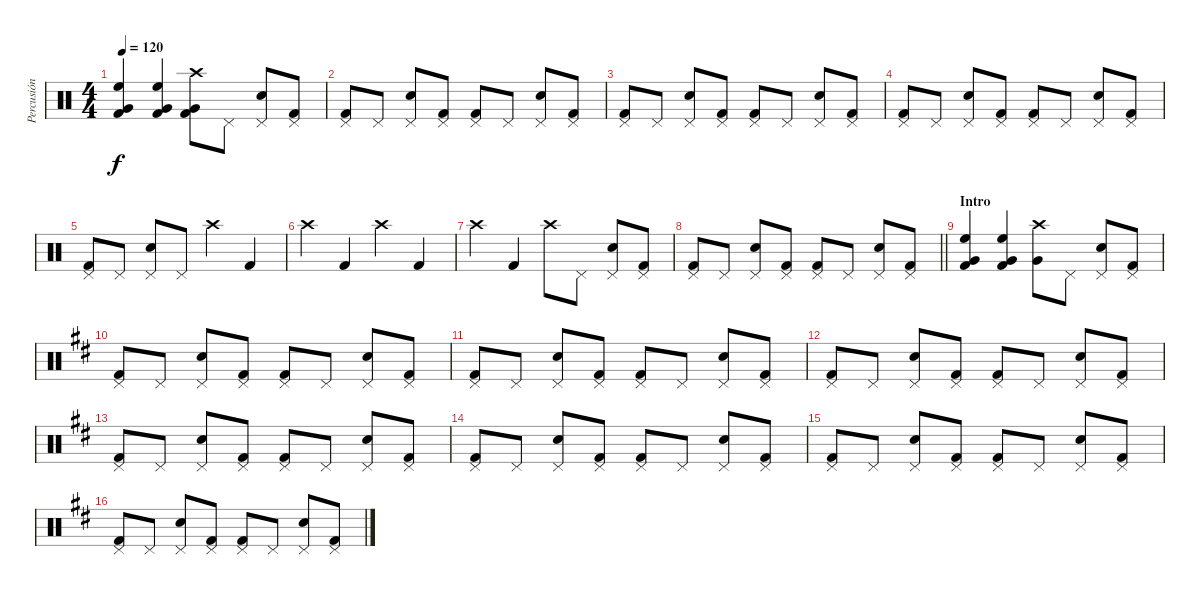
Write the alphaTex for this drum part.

\track ("Percusión" "Percusión") {instrument percussion}
\staff {score}
\articulation defaults
\ts (4 4)
\tempo 120
\clef neutral
\ks c
("Very Low Tom (hit)" "High Floor Tom (hit)" "Kick (hit) 2").4{dy f} ("Very Low Tom (hit)" "High Floor Tom (hit)" "Kick (hit) 2").4 ("Very Low Tom (hit)" "Crash high (hit)" "Kick (hit) 2").8 "Pedal Hi-Hat (hit)".8 ("Pedal Hi-Hat (hit)" "Electric Snare (hit)").8 ("Pedal Hi-Hat (hit)" "Kick (hit) 2").8 |
("Pedal Hi-Hat (hit)" "Kick (hit) 2").8 "Pedal Hi-Hat (hit)".8 ("Pedal Hi-Hat (hit)" "Electric Snare (hit)").8 ("Pedal Hi-Hat (hit)" "Kick (hit) 2").8 ("Pedal Hi-Hat (hit)" "Kick (hit) 2").8 "Pedal Hi-Hat (hit)".8 ("Pedal Hi-Hat (hit)" "Electric Snare (hit)").8 ("Pedal Hi-Hat (hit)" "Kick (hit) 2").8 |
("Pedal Hi-Hat (hit)" "Kick (hit) 2").8 "Pedal Hi-Hat (hit)".8 ("Pedal Hi-Hat (hit)" "Electric Snare (hit)").8 ("Pedal Hi-Hat (hit)" "Kick (hit) 2").8 ("Pedal Hi-Hat (hit)" "Kick (hit) 2").8 "Pedal Hi-Hat (hit)".8 ("Pedal Hi-Hat (hit)" "Electric Snare (hit)").8 ("Pedal Hi-Hat (hit)" "Kick (hit) 2").8 |
("Pedal Hi-Hat (hit)" "Kick (hit) 2").8 "Pedal Hi-Hat (hit)".8 ("Pedal Hi-Hat (hit)" "Electric Snare (hit)").8 ("Pedal Hi-Hat (hit)" "Kick (hit) 2").8 ("Pedal Hi-Hat (hit)" "Kick (hit) 2").8 "Pedal Hi-Hat (hit)".8 ("Pedal Hi-Hat (hit)" "Electric Snare (hit)").8 ("Pedal Hi-Hat (hit)" "Kick (hit) 2").8 |
("Pedal Hi-Hat (hit)" "Kick (hit) 2").8 "Pedal Hi-Hat (hit)".8 ("Pedal Hi-Hat (hit)" "Electric Snare (hit)").8 "Pedal Hi-Hat (hit)".8 "Crash high (hit)".4 "Kick (hit) 2".4 |
"Crash high (hit)".4 "Kick (hit) 2".4 "Crash high (hit)".4 "Kick (hit) 2".4 |
"Crash high (hit)".4 "Kick (hit) 2".4 "Crash high (hit)".8 "Pedal Hi-Hat (hit)".8 ("Pedal Hi-Hat (hit)" "Electric Snare (hit)").8 ("Pedal Hi-Hat (hit)" "Kick (hit) 2").8 |
\barLineRight lightlight
("Pedal Hi-Hat (hit)" "Kick (hit) 2").8 "Pedal Hi-Hat (hit)".8 ("Pedal Hi-Hat (hit)" "Electric Snare (hit)").8 ("Pedal Hi-Hat (hit)" "Kick (hit) 2").8 ("Pedal Hi-Hat (hit)" "Kick (hit) 2").8 "Pedal Hi-Hat (hit)".8 ("Pedal Hi-Hat (hit)" "Electric Snare (hit)").8 ("Pedal Hi-Hat (hit)" "Kick (hit) 2").8 |
\section ("" "Intro")
("Very Low Tom (hit)" "High Floor Tom (hit)" "Kick (hit) 2").4 ("Very Low Tom (hit)" "High Floor Tom (hit)" "Kick (hit) 2").4 ("Very Low Tom (hit)" "Crash high (hit)").8 "Pedal Hi-Hat (hit)".8 ("Pedal Hi-Hat (hit)" "Electric Snare (hit)").8 ("Pedal Hi-Hat (hit)" "Kick (hit) 2").8 |
\ks d
("Pedal Hi-Hat (hit)" "Kick (hit) 2").8 "Pedal Hi-Hat (hit)".8 ("Pedal Hi-Hat (hit)" "Electric Snare (hit)").8 ("Pedal Hi-Hat (hit)" "Kick (hit) 2").8 ("Pedal Hi-Hat (hit)" "Kick (hit) 2").8 "Pedal Hi-Hat (hit)".8 ("Pedal Hi-Hat (hit)" "Electric Snare (hit)").8 ("Pedal Hi-Hat (hit)" "Kick (hit) 2").8 |
("Pedal Hi-Hat (hit)" "Kick (hit) 2").8 "Pedal Hi-Hat (hit)".8 ("Pedal Hi-Hat (hit)" "Electric Snare (hit)").8 ("Pedal Hi-Hat (hit)" "Kick (hit) 2").8 ("Pedal Hi-Hat (hit)" "Kick (hit) 2").8 "Pedal Hi-Hat (hit)".8 ("Pedal Hi-Hat (hit)" "Electric Snare (hit)").8 ("Pedal Hi-Hat (hit)" "Kick (hit) 2").8 |
("Pedal Hi-Hat (hit)" "Kick (hit) 2").8 "Pedal Hi-Hat (hit)".8 ("Pedal Hi-Hat (hit)" "Electric Snare (hit)").8 ("Pedal Hi-Hat (hit)" "Kick (hit) 2").8 ("Pedal Hi-Hat (hit)" "Kick (hit) 2").8 "Pedal Hi-Hat (hit)".8 ("Pedal Hi-Hat (hit)" "Electric Snare (hit)").8 ("Pedal Hi-Hat (hit)" "Kick (hit) 2").8 |
("Pedal Hi-Hat (hit)" "Kick (hit) 2").8 "Pedal Hi-Hat (hit)".8 ("Pedal Hi-Hat (hit)" "Electric Snare (hit)").8 ("Pedal Hi-Hat (hit)" "Kick (hit) 2").8 ("Pedal Hi-Hat (hit)" "Kick (hit) 2").8 "Pedal Hi-Hat (hit)".8 ("Pedal Hi-Hat (hit)" "Electric Snare (hit)").8 ("Pedal Hi-Hat (hit)" "Kick (hit) 2").8 |
("Pedal Hi-Hat (hit)" "Kick (hit) 2").8 "Pedal Hi-Hat (hit)".8 ("Pedal Hi-Hat (hit)" "Electric Snare (hit)").8 ("Pedal Hi-Hat (hit)" "Kick (hit) 2").8 ("Pedal Hi-Hat (hit)" "Kick (hit) 2").8 "Pedal Hi-Hat (hit)".8 ("Pedal Hi-Hat (hit)" "Electric Snare (hit)").8 ("Pedal Hi-Hat (hit)" "Kick (hit) 2").8 |
("Pedal Hi-Hat (hit)" "Kick (hit) 2").8 "Pedal Hi-Hat (hit)".8 ("Pedal Hi-Hat (hit)" "Electric Snare (hit)").8 ("Pedal Hi-Hat (hit)" "Kick (hit) 2").8 ("Pedal Hi-Hat (hit)" "Kick (hit) 2").8 "Pedal Hi-Hat (hit)".8 ("Pedal Hi-Hat (hit)" "Electric Snare (hit)").8 ("Pedal Hi-Hat (hit)" "Kick (hit) 2").8 |
("Pedal Hi-Hat (hit)" "Kick (hit) 2").8 "Pedal Hi-Hat (hit)".8 ("Pedal Hi-Hat (hit)" "Electric Snare (hit)").8 ("Pedal Hi-Hat (hit)" "Kick (hit) 2").8 ("Pedal Hi-Hat (hit)" "Kick (hit) 2").8 "Pedal Hi-Hat (hit)".8 ("Pedal Hi-Hat (hit)" "Electric Snare (hit)").8 ("Pedal Hi-Hat (hit)" "Kick (hit) 2").8
